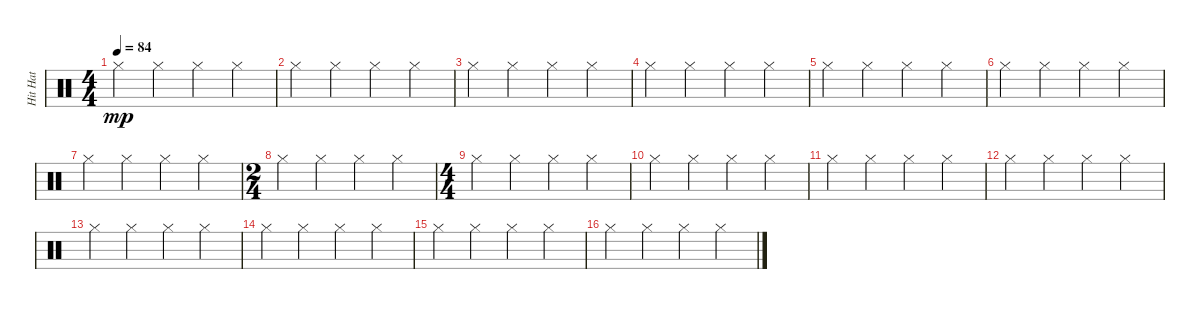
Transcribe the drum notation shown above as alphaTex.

\track ("Hit Hat" "Hit Hat") {instrument percussion}
\staff {score}
\articulation defaults
\ts (4 4)
\tempo 84
\clef neutral
\ks c "Hi-Hat (closed)".4{dy mp} "Hi-Hat (closed)".4 "Hi-Hat (closed)".4 "Hi-Hat (closed)".4
|
"Hi-Hat (closed)".4 "Hi-Hat (closed)".4 "Hi-Hat (closed)".4 "Hi-Hat (closed)".4 |
"Hi-Hat (closed)".4 "Hi-Hat (closed)".4 "Hi-Hat (closed)".4 "Hi-Hat (closed)".4 |
"Hi-Hat (closed)".4 "Hi-Hat (closed)".4 "Hi-Hat (closed)".4 "Hi-Hat (closed)".4 |
"Hi-Hat (closed)".4 "Hi-Hat (closed)".4 "Hi-Hat (closed)".4 "Hi-Hat (closed)".4 |
"Hi-Hat (closed)".4 "Hi-Hat (closed)".4 "Hi-Hat (closed)".4 "Hi-Hat (closed)".4 |
"Hi-Hat (closed)".4 "Hi-Hat (closed)".4 "Hi-Hat (closed)".4 "Hi-Hat (closed)".4 |
\ts (2 4)
"Hi-Hat (closed)".4 "Hi-Hat (closed)".4 "Hi-Hat (closed)".4 "Hi-Hat (closed)".4 |
\ts (4 4)
"Hi-Hat (closed)".4 "Hi-Hat (closed)".4 "Hi-Hat (closed)".4 "Hi-Hat (closed)".4 |
"Hi-Hat (closed)".4 "Hi-Hat (closed)".4 "Hi-Hat (closed)".4 "Hi-Hat (closed)".4 |
"Hi-Hat (closed)".4 "Hi-Hat (closed)".4 "Hi-Hat (closed)".4 "Hi-Hat (closed)".4 |
"Hi-Hat (closed)".4 "Hi-Hat (closed)".4 "Hi-Hat (closed)".4 "Hi-Hat (closed)".4 |
"Hi-Hat (closed)".4 "Hi-Hat (closed)".4 "Hi-Hat (closed)".4 "Hi-Hat (closed)".4 |
"Hi-Hat (closed)".4 "Hi-Hat (closed)".4 "Hi-Hat (closed)".4 "Hi-Hat (closed)".4 |
"Hi-Hat (closed)".4 "Hi-Hat (closed)".4 "Hi-Hat (closed)".4 "Hi-Hat (closed)".4 |
"Hi-Hat (closed)".4 "Hi-Hat (closed)".4 "Hi-Hat (closed)".4 "Hi-Hat (closed)".4
